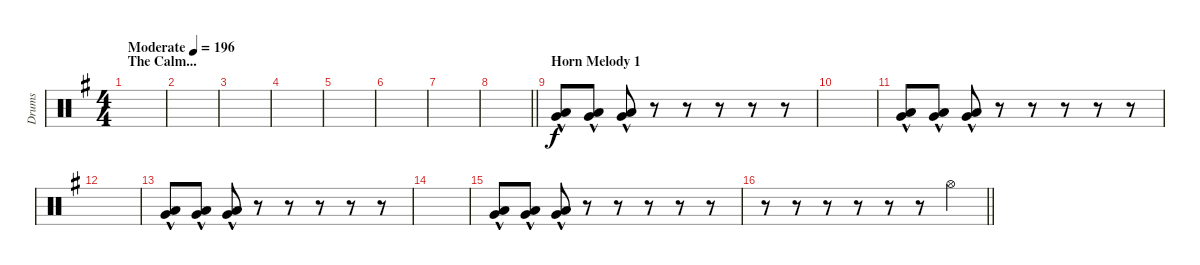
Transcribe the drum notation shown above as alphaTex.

\track ("Drums" "Drums") {instrument percussion}
\staff {score}
\articulation defaults
\ts (4 4)
\section ("" "The Calm...")
\tempo (196 "Moderate")
\clef neutral
\ks eminor
|
|
|
|
|
|
|
\barLineRight lightlight
|
\section ("" "Horn Melody 1")
("Low Tom (hit)"{hac} "Very Low Tom (hit)"{hac}).8 ("Low Tom (hit)"{hac} "Very Low Tom (hit)"{hac}).8 ("Low Tom (hit)"{hac} "Very Low Tom (hit)"{hac}).8 r.8 r.8 r.8 r.8 r.8 |
|
("Low Tom (hit)"{hac} "Very Low Tom (hit)"{hac}).8 ("Low Tom (hit)"{hac} "Very Low Tom (hit)"{hac}).8 ("Low Tom (hit)"{hac} "Very Low Tom (hit)"{hac}).8 r.8 r.8 r.8 r.8 r.8 |
|
("Low Tom (hit)"{hac} "Very Low Tom (hit)"{hac}).8 ("Low Tom (hit)"{hac} "Very Low Tom (hit)"{hac}).8 ("Low Tom (hit)"{hac} "Very Low Tom (hit)"{hac}).8 r.8 r.8 r.8 r.8 r.8 |
|
("Low Tom (hit)"{hac} "Very Low Tom (hit)"{hac}).8 ("Low Tom (hit)"{hac} "Very Low Tom (hit)"{hac}).8 ("Low Tom (hit)"{hac} "Very Low Tom (hit)"{hac}).8 r.8 r.8 r.8 r.8 r.8 |
\barLineRight lightlight
r.8 r.8 r.8 r.8 r.8 r.8 "Hi-Hat (open)".4{dy f}
